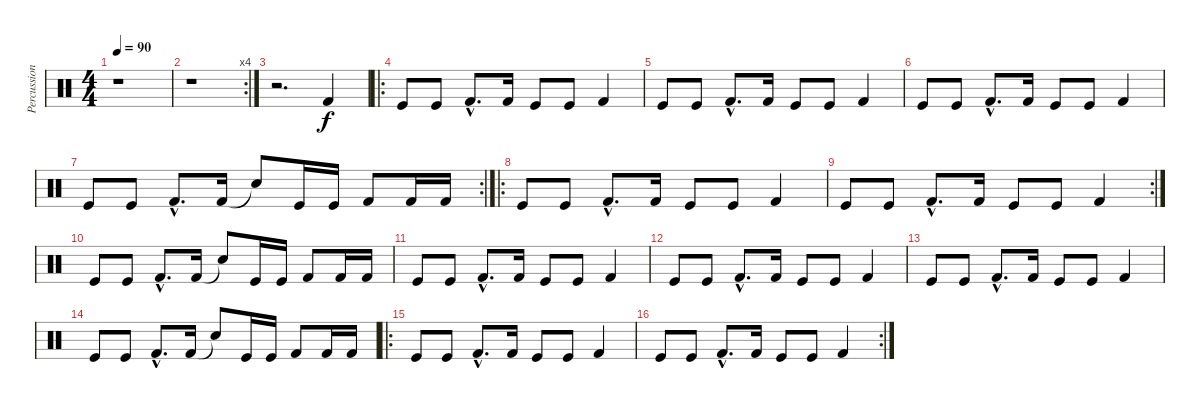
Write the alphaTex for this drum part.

\track ("Percussions" "Percussion") {instrument percussion}
\staff {score}
\articulation defaults
\ts (4 4)
\tempo 90
\clef neutral
\ks c
r.1{dy f} |
\rc 4
r.1 |
r.2{d} "Kick (hit) 2".4 |
\ro "Kick (hit)".8 "Kick (hit)".8 "Kick (hit) 2"{hac}.8{d} "Kick (hit) 2".16 "Kick (hit)".8 "Kick (hit)".8 "Kick (hit) 2".4
|
"Kick (hit)".8 "Kick (hit)".8 "Kick (hit) 2"{hac}.8{d} "Kick (hit) 2".16 "Kick (hit)".8 "Kick (hit)".8 "Kick (hit) 2".4 |
"Kick (hit)".8 "Kick (hit)".8 "Kick (hit) 2"{hac}.8{d} "Kick (hit) 2".16 "Kick (hit)".8 "Kick (hit)".8 "Kick (hit) 2".4 |
\rc 2 "Kick (hit)".8 "Kick (hit)".8 "Kick (hit) 2"{hac}.8{d} "Kick (hit) 2".16 "Snare (hit)"{t}.8 "Kick (hit)".16 "Kick (hit)".16 "Kick (hit) 2".8 "Kick (hit) 2".16 "Kick (hit) 2".16
|
\ro "Kick (hit)".8 "Kick (hit)".8 "Kick (hit) 2"{hac}.8{d} "Kick (hit) 2".16 "Kick (hit)".8 "Kick (hit)".8 "Kick (hit) 2".4
|
\rc 2 "Kick (hit)".8 "Kick (hit)".8 "Kick (hit) 2"{hac}.8{d} "Kick (hit) 2".16 "Kick (hit)".8 "Kick (hit)".8 "Kick (hit) 2".4
|
"Kick (hit)".8 "Kick (hit)".8 "Kick (hit) 2"{hac}.8{d} "Kick (hit) 2".16 "Snare (hit)"{t}.8 "Kick (hit)".16 "Kick (hit)".16 "Kick (hit) 2".8 "Kick (hit) 2".16 "Kick (hit) 2".16 |
"Kick (hit)".8 "Kick (hit)".8 "Kick (hit) 2"{hac}.8{d} "Kick (hit) 2".16 "Kick (hit)".8 "Kick (hit)".8 "Kick (hit) 2".4 |
"Kick (hit)".8 "Kick (hit)".8 "Kick (hit) 2"{hac}.8{d} "Kick (hit) 2".16 "Kick (hit)".8 "Kick (hit)".8 "Kick (hit) 2".4 |
"Kick (hit)".8 "Kick (hit)".8 "Kick (hit) 2"{hac}.8{d} "Kick (hit) 2".16 "Kick (hit)".8 "Kick (hit)".8 "Kick (hit) 2".4 |
"Kick (hit)".8 "Kick (hit)".8 "Kick (hit) 2"{hac}.8{d} "Kick (hit) 2".16 "Snare (hit)"{t}.8 "Kick (hit)".16 "Kick (hit)".16 "Kick (hit) 2".8 "Kick (hit) 2".16 "Kick (hit) 2".16 |
\ro "Kick (hit)".8 "Kick (hit)".8 "Kick (hit) 2"{hac}.8{d} "Kick (hit) 2".16 "Kick (hit)".8 "Kick (hit)".8 "Kick (hit) 2".4
|
\rc 2 "Kick (hit)".8 "Kick (hit)".8 "Kick (hit) 2"{hac}.8{d} "Kick (hit) 2".16 "Kick (hit)".8 "Kick (hit)".8 "Kick (hit) 2".4
